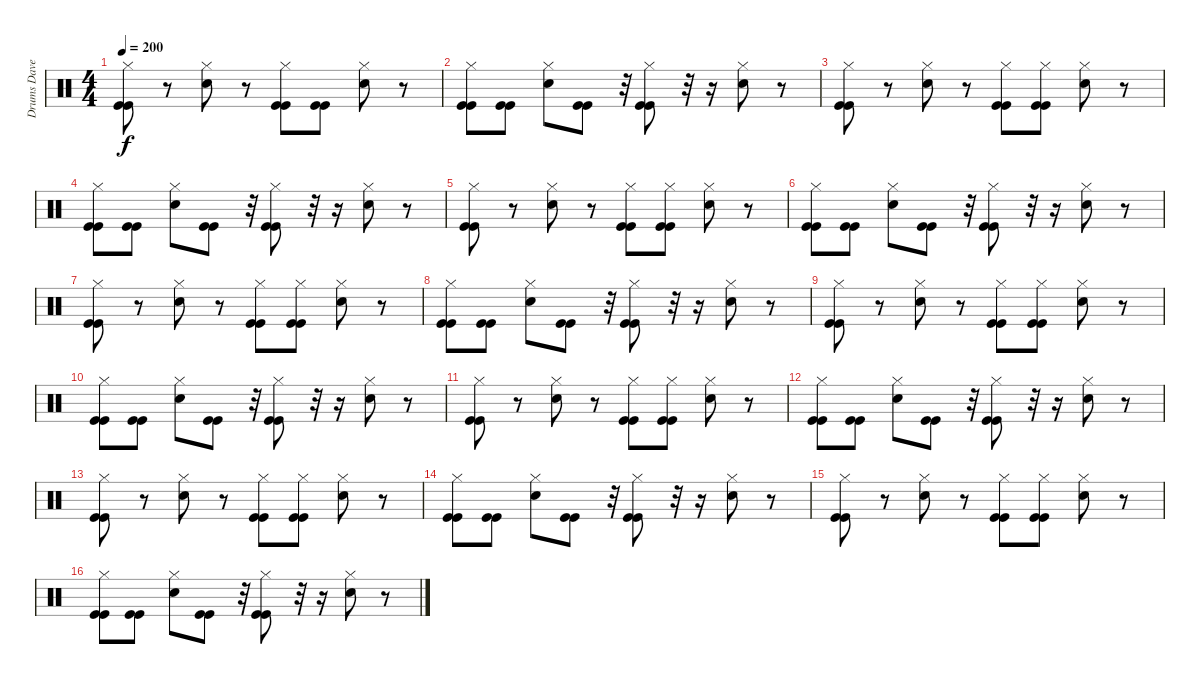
\track ("Drums Dave Grohl" "Drums Dave") {instrument percussion}
\staff {score}
\articulation defaults
\ts (4 4)
\tempo 200
\clef neutral
\ks c
("Hi-Hat (closed)" "Kick (hit)" "Kick (hit)").8{dy f} r.8 ("Hi-Hat (closed)" "Electric Snare (hit)").8 r.8 ("Hi-Hat (closed)" "Kick (hit)" "Kick (hit)").8 ("Kick (hit)" "Kick (hit)").8 ("Hi-Hat (closed)" "Electric Snare (hit)").8 r.8 |
("Hi-Hat (closed)" "Kick (hit)" "Kick (hit)").8 ("Kick (hit)" "Kick (hit)").8 ("Hi-Hat (closed)" "Electric Snare (hit)").8 ("Kick (hit)" "Kick (hit)").8 r.32 ("Hi-Hat (closed)" "Kick (hit)" "Kick (hit)").8 r.32 r.16 ("Hi-Hat (closed)" "Electric Snare (hit)").8 r.8 |
("Hi-Hat (closed)" "Kick (hit)" "Kick (hit)").8 r.8 ("Hi-Hat (closed)" "Electric Snare (hit)").8 r.8 ("Hi-Hat (closed)" "Kick (hit)" "Kick (hit)").8 ("Hi-Hat (closed)" "Kick (hit)" "Kick (hit)").8 ("Hi-Hat (closed)" "Electric Snare (hit)").8 r.8 |
("Hi-Hat (closed)" "Kick (hit)" "Kick (hit)").8 ("Kick (hit)" "Kick (hit)").8 ("Hi-Hat (closed)" "Electric Snare (hit)").8 ("Kick (hit)" "Kick (hit)").8 r.32 ("Hi-Hat (closed)" "Kick (hit)" "Kick (hit)").8 r.32 r.16 ("Hi-Hat (closed)" "Electric Snare (hit)").8 r.8 |
("Hi-Hat (closed)" "Kick (hit)" "Kick (hit)").8 r.8 ("Hi-Hat (closed)" "Electric Snare (hit)").8 r.8 ("Hi-Hat (closed)" "Kick (hit)" "Kick (hit)").8 ("Hi-Hat (closed)" "Kick (hit)" "Kick (hit)").8 ("Hi-Hat (closed)" "Electric Snare (hit)").8 r.8 |
("Hi-Hat (closed)" "Kick (hit)" "Kick (hit)").8 ("Kick (hit)" "Kick (hit)").8 ("Hi-Hat (closed)" "Electric Snare (hit)").8 ("Kick (hit)" "Kick (hit)").8 r.32 ("Hi-Hat (closed)" "Kick (hit)" "Kick (hit)").8 r.32 r.16 ("Hi-Hat (closed)" "Electric Snare (hit)").8 r.8 |
("Hi-Hat (closed)" "Kick (hit)" "Kick (hit)").8 r.8 ("Hi-Hat (closed)" "Electric Snare (hit)").8 r.8 ("Hi-Hat (closed)" "Kick (hit)" "Kick (hit)").8 ("Hi-Hat (closed)" "Kick (hit)" "Kick (hit)").8 ("Hi-Hat (closed)" "Electric Snare (hit)").8 r.8 |
("Hi-Hat (closed)" "Kick (hit)" "Kick (hit)").8 ("Kick (hit)" "Kick (hit)").8 ("Hi-Hat (closed)" "Electric Snare (hit)").8 ("Kick (hit)" "Kick (hit)").8 r.32 ("Hi-Hat (closed)" "Kick (hit)" "Kick (hit)").8 r.32 r.16 ("Hi-Hat (closed)" "Electric Snare (hit)").8 r.8 |
("Hi-Hat (closed)" "Kick (hit)" "Kick (hit)").8 r.8 ("Hi-Hat (closed)" "Electric Snare (hit)").8 r.8 ("Hi-Hat (closed)" "Kick (hit)" "Kick (hit)").8 ("Hi-Hat (closed)" "Kick (hit)" "Kick (hit)").8 ("Hi-Hat (closed)" "Electric Snare (hit)").8 r.8 |
("Hi-Hat (closed)" "Kick (hit)" "Kick (hit)").8 ("Kick (hit)" "Kick (hit)").8 ("Hi-Hat (closed)" "Electric Snare (hit)").8 ("Kick (hit)" "Kick (hit)").8 r.32 ("Hi-Hat (closed)" "Kick (hit)" "Kick (hit)").8 r.32 r.16 ("Hi-Hat (closed)" "Electric Snare (hit)").8 r.8 |
("Hi-Hat (closed)" "Kick (hit)" "Kick (hit)").8 r.8 ("Hi-Hat (closed)" "Electric Snare (hit)").8 r.8 ("Hi-Hat (closed)" "Kick (hit)" "Kick (hit)").8 ("Hi-Hat (closed)" "Kick (hit)" "Kick (hit)").8 ("Hi-Hat (closed)" "Electric Snare (hit)").8 r.8 |
("Hi-Hat (closed)" "Kick (hit)" "Kick (hit)").8 ("Kick (hit)" "Kick (hit)").8 ("Hi-Hat (closed)" "Electric Snare (hit)").8 ("Kick (hit)" "Kick (hit)").8 r.32 ("Hi-Hat (closed)" "Kick (hit)" "Kick (hit)").8 r.32 r.16 ("Hi-Hat (closed)" "Electric Snare (hit)").8 r.8 |
("Hi-Hat (closed)" "Kick (hit)" "Kick (hit)").8 r.8 ("Hi-Hat (closed)" "Electric Snare (hit)").8 r.8 ("Hi-Hat (closed)" "Kick (hit)" "Kick (hit)").8 ("Hi-Hat (closed)" "Kick (hit)" "Kick (hit)").8 ("Hi-Hat (closed)" "Electric Snare (hit)").8 r.8 |
("Hi-Hat (closed)" "Kick (hit)" "Kick (hit)").8 ("Kick (hit)" "Kick (hit)").8 ("Hi-Hat (closed)" "Electric Snare (hit)").8 ("Kick (hit)" "Kick (hit)").8 r.32 ("Hi-Hat (closed)" "Kick (hit)" "Kick (hit)").8 r.32 r.16 ("Hi-Hat (closed)" "Electric Snare (hit)").8 r.8 |
("Hi-Hat (closed)" "Kick (hit)" "Kick (hit)").8 r.8 ("Hi-Hat (closed)" "Electric Snare (hit)").8 r.8 ("Hi-Hat (closed)" "Kick (hit)" "Kick (hit)").8 ("Hi-Hat (closed)" "Kick (hit)" "Kick (hit)").8 ("Hi-Hat (closed)" "Electric Snare (hit)").8 r.8 |
("Hi-Hat (closed)" "Kick (hit)" "Kick (hit)").8 ("Kick (hit)" "Kick (hit)").8 ("Hi-Hat (closed)" "Electric Snare (hit)").8 ("Kick (hit)" "Kick (hit)").8 r.32 ("Hi-Hat (closed)" "Kick (hit)" "Kick (hit)").8 r.32 r.16 ("Hi-Hat (closed)" "Electric Snare (hit)").8 r.8
